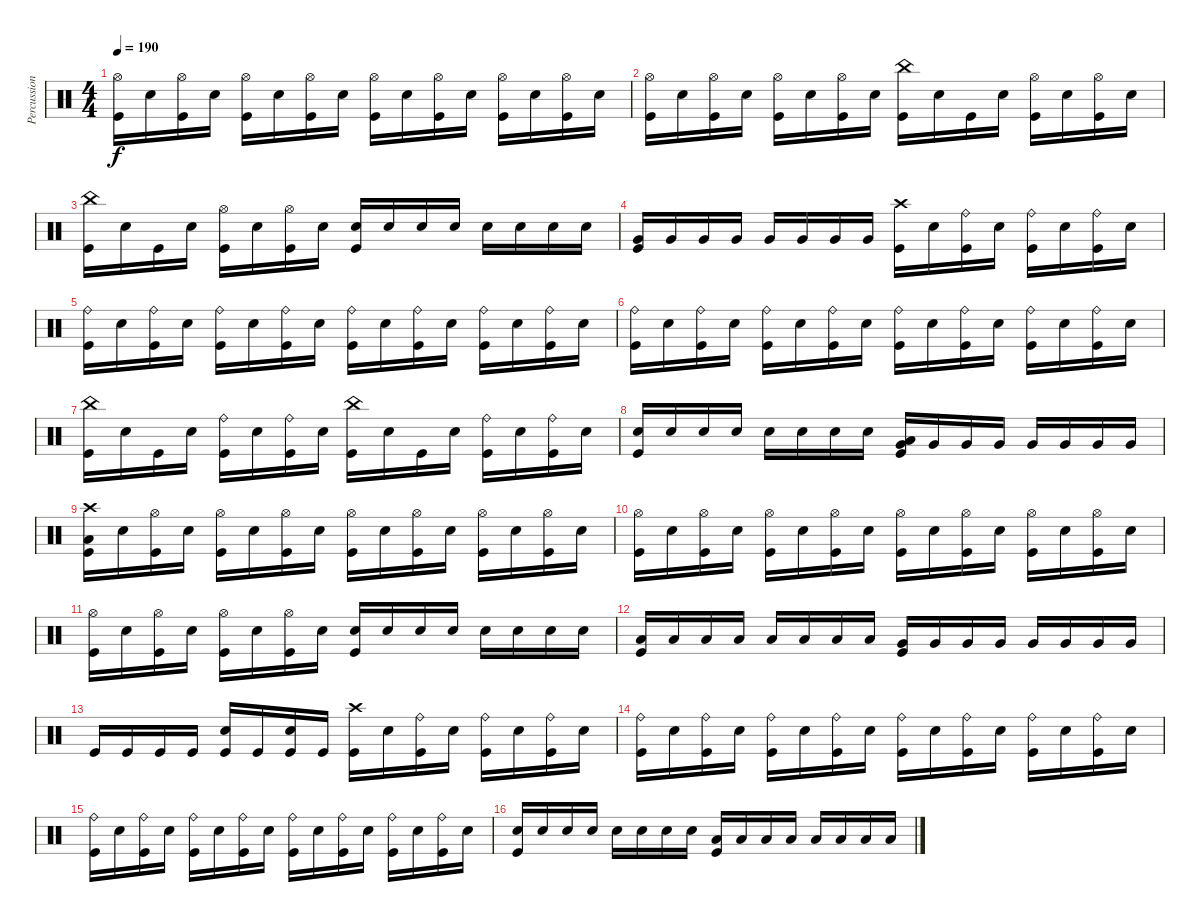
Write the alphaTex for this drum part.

\track ("Percussion" "Percussion") {instrument percussion}
\staff {score}
\articulation defaults
\ts (4 4)
\tempo 190
\clef neutral
\ks c
("Hi-Hat (open)" "Kick (hit)").16{dy f} "Snare (hit) 2".16 ("Hi-Hat (open)" "Kick (hit)").16 "Snare (hit) 2".16 ("Hi-Hat (open)" "Kick (hit)").16 "Snare (hit) 2".16 ("Hi-Hat (open)" "Kick (hit)").16 "Snare (hit) 2".16 ("Hi-Hat (open)" "Kick (hit)").16 "Snare (hit) 2".16 ("Hi-Hat (open)" "Kick (hit)").16 "Snare (hit) 2".16 ("Hi-Hat (open)" "Kick (hit)").16 "Snare (hit) 2".16 ("Hi-Hat (open)" "Kick (hit)").16 "Snare (hit) 2".16 |
("Hi-Hat (open)" "Kick (hit)").16 "Snare (hit) 2".16 ("Hi-Hat (open)" "Kick (hit)").16 "Snare (hit) 2".16 ("Hi-Hat (open)" "Kick (hit)").16 "Snare (hit) 2".16 ("Hi-Hat (open)" "Kick (hit)").16 "Snare (hit) 2".16 ("China (hit)" "Kick (hit)").16 "Snare (hit) 2".16 "Kick (hit)".16 "Snare (hit) 2".16 ("Hi-Hat (open)" "Kick (hit)").16 "Snare (hit) 2".16 ("Hi-Hat (open)" "Kick (hit)").16 "Snare (hit) 2".16 |
("China (hit)" "Kick (hit)").16 "Snare (hit) 2".16 "Kick (hit)".16 "Snare (hit) 2".16 ("Hi-Hat (open)" "Kick (hit)").16 "Snare (hit) 2".16 ("Hi-Hat (open)" "Kick (hit)").16 "Snare (hit) 2".16 ("Snare (hit) 2" "Kick (hit)").16 "Snare (hit) 2".16 "Snare (hit) 2".16 "Snare (hit) 2".16 "Snare (hit) 2".16 "Snare (hit) 2".16 "Snare (hit) 2".16 "Snare (hit) 2".16 |
("Very Low Tom (hit)" "Kick (hit)").16 "Very Low Tom (hit)".16 "Very Low Tom (hit)".16 "Very Low Tom (hit)".16 "Very Low Tom (hit)".16 "Very Low Tom (hit)".16 "Very Low Tom (hit)".16 "Very Low Tom (hit)".16 ("Crash high (hit)" "Kick (hit)").16 "Snare (hit) 2".16 ("Ride (bell)" "Kick (hit)").16 "Snare (hit) 2".16 ("Ride (bell)" "Kick (hit)").16 "Snare (hit) 2".16 ("Ride (bell)" "Kick (hit)").16 "Snare (hit) 2".16 |
("Ride (bell)" "Kick (hit)").16 "Snare (hit) 2".16 ("Ride (bell)" "Kick (hit)").16 "Snare (hit) 2".16 ("Ride (bell)" "Kick (hit)").16 "Snare (hit) 2".16 ("Ride (bell)" "Kick (hit)").16 "Snare (hit) 2".16 ("Ride (bell)" "Kick (hit)").16 "Snare (hit) 2".16 ("Ride (bell)" "Kick (hit)").16 "Snare (hit) 2".16 ("Ride (bell)" "Kick (hit)").16 "Snare (hit) 2".16 ("Ride (bell)" "Kick (hit)").16 "Snare (hit) 2".16 |
("Ride (bell)" "Kick (hit)").16 "Snare (hit) 2".16 ("Ride (bell)" "Kick (hit)").16 "Snare (hit) 2".16 ("Ride (bell)" "Kick (hit)").16 "Snare (hit) 2".16 ("Ride (bell)" "Kick (hit)").16 "Snare (hit) 2".16 ("Ride (bell)" "Kick (hit)").16 "Snare (hit) 2".16 ("Ride (bell)" "Kick (hit)").16 "Snare (hit) 2".16 ("Ride (bell)" "Kick (hit)").16 "Snare (hit) 2".16 ("Ride (bell)" "Kick (hit)").16 "Snare (hit) 2".16 |
("China (hit)" "Kick (hit)").16 "Snare (hit) 2".16 "Kick (hit)".16 "Snare (hit) 2".16 ("Ride (bell)" "Kick (hit)").16 "Snare (hit) 2".16 ("Ride (bell)" "Kick (hit)").16 "Snare (hit) 2".16 ("China (hit)" "Kick (hit)").16 "Snare (hit) 2".16 "Kick (hit)".16 "Snare (hit) 2".16 ("Ride (bell)" "Kick (hit)").16 "Snare (hit) 2".16 ("Ride (bell)" "Kick (hit)").16 "Snare (hit) 2".16 |
("Snare (hit) 2" "Kick (hit)").16 "Snare (hit) 2".16 "Snare (hit) 2".16 "Snare (hit) 2".16 "Snare (hit) 2".16 "Snare (hit) 2".16 "Snare (hit) 2".16 "Snare (hit) 2".16 ("Low Floor Tom (hit)" "Very Low Tom (hit)" "Kick (hit)").16 "Very Low Tom (hit)".16 "Very Low Tom (hit)".16 "Very Low Tom (hit)".16 "Very Low Tom (hit)".16 "Very Low Tom (hit)".16 "Very Low Tom (hit)".16 "Very Low Tom (hit)".16 |
("Crash high (hit)" "Low Floor Tom (hit)" "Kick (hit)").16 "Snare (hit) 2".16 ("Hi-Hat (open)" "Kick (hit)").16 "Snare (hit) 2".16 ("Hi-Hat (open)" "Kick (hit)").16 "Snare (hit) 2".16 ("Hi-Hat (open)" "Kick (hit)").16 "Snare (hit) 2".16 ("Hi-Hat (open)" "Kick (hit)").16 "Snare (hit) 2".16 ("Hi-Hat (open)" "Kick (hit)").16 "Snare (hit) 2".16 ("Hi-Hat (open)" "Kick (hit)").16 "Snare (hit) 2".16 ("Hi-Hat (open)" "Kick (hit)").16 "Snare (hit) 2".16 |
("Hi-Hat (open)" "Kick (hit)").16 "Snare (hit) 2".16 ("Hi-Hat (open)" "Kick (hit)").16 "Snare (hit) 2".16 ("Hi-Hat (open)" "Kick (hit)").16 "Snare (hit) 2".16 ("Hi-Hat (open)" "Kick (hit)").16 "Snare (hit) 2".16 ("Hi-Hat (open)" "Kick (hit)").16 "Snare (hit) 2".16 ("Hi-Hat (open)" "Kick (hit)").16 "Snare (hit) 2".16 ("Hi-Hat (open)" "Kick (hit)").16 "Snare (hit) 2".16 ("Hi-Hat (open)" "Kick (hit)").16 "Snare (hit) 2".16 |
("Hi-Hat (open)" "Kick (hit)").16 "Snare (hit) 2".16 ("Hi-Hat (open)" "Kick (hit)").16 "Snare (hit) 2".16 ("Hi-Hat (open)" "Kick (hit)").16 "Snare (hit) 2".16 ("Hi-Hat (open)" "Kick (hit)").16 "Snare (hit) 2".16 ("Snare (hit) 2" "Kick (hit)").16 "Snare (hit) 2".16 "Snare (hit) 2".16 "Snare (hit) 2".16 "Snare (hit) 2".16 "Snare (hit) 2".16 "Snare (hit) 2".16 "Snare (hit) 2".16 |
("Low Tom (hit)" "Kick (hit)").16 "Low Tom (hit)".16 "Low Tom (hit)".16 "Low Tom (hit)".16 "Low Tom (hit)".16 "Low Tom (hit)".16 "Low Tom (hit)".16 "Low Tom (hit)".16 ("Very Low Tom (hit)" "Kick (hit)").16 "Very Low Tom (hit)".16 "Very Low Tom (hit)".16 "Very Low Tom (hit)".16 "Very Low Tom (hit)".16 "Very Low Tom (hit)".16 "Very Low Tom (hit)".16 "Very Low Tom (hit)".16 |
"Kick (hit)".16 "Kick (hit)".16 "Kick (hit)".16 "Kick (hit)".16 ("Snare (hit) 2" "Kick (hit)").16 "Kick (hit)".16 ("Snare (hit) 2" "Kick (hit)").16 "Kick (hit)".16 ("Crash high (hit)" "Kick (hit)").16 "Snare (hit) 2".16 ("Ride (bell)" "Kick (hit)").16 "Snare (hit) 2".16 ("Ride (bell)" "Kick (hit)").16 "Snare (hit) 2".16 ("Ride (bell)" "Kick (hit)").16 "Snare (hit) 2".16 |
("Ride (bell)" "Kick (hit)").16 "Snare (hit) 2".16 ("Ride (bell)" "Kick (hit)").16 "Snare (hit) 2".16 ("Ride (bell)" "Kick (hit)").16 "Snare (hit) 2".16 ("Ride (bell)" "Kick (hit)").16 "Snare (hit) 2".16 ("Ride (bell)" "Kick (hit)").16 "Snare (hit) 2".16 ("Ride (bell)" "Kick (hit)").16 "Snare (hit) 2".16 ("Ride (bell)" "Kick (hit)").16 "Snare (hit) 2".16 ("Ride (bell)" "Kick (hit)").16 "Snare (hit) 2".16 |
("Ride (bell)" "Kick (hit)").16 "Snare (hit) 2".16 ("Ride (bell)" "Kick (hit)").16 "Snare (hit) 2".16 ("Ride (bell)" "Kick (hit)").16 "Snare (hit) 2".16 ("Ride (bell)" "Kick (hit)").16 "Snare (hit) 2".16 ("Ride (bell)" "Kick (hit)").16 "Snare (hit) 2".16 ("Ride (bell)" "Kick (hit)").16 "Snare (hit) 2".16 ("Ride (bell)" "Kick (hit)").16 "Snare (hit) 2".16 ("Ride (bell)" "Kick (hit)").16 "Snare (hit) 2".16 |
("Snare (hit) 2" "Kick (hit)").16 "Snare (hit) 2".16 "Snare (hit) 2".16 "Snare (hit) 2".16 "Snare (hit) 2".16 "Snare (hit) 2".16 "Snare (hit) 2".16 "Snare (hit) 2".16 ("Low Tom (hit)" "Kick (hit)").16 "Low Tom (hit)".16 "Low Tom (hit)".16 "Low Tom (hit)".16 "Low Tom (hit)".16 "Low Tom (hit)".16 "Low Tom (hit)".16 "Low Tom (hit)".16
